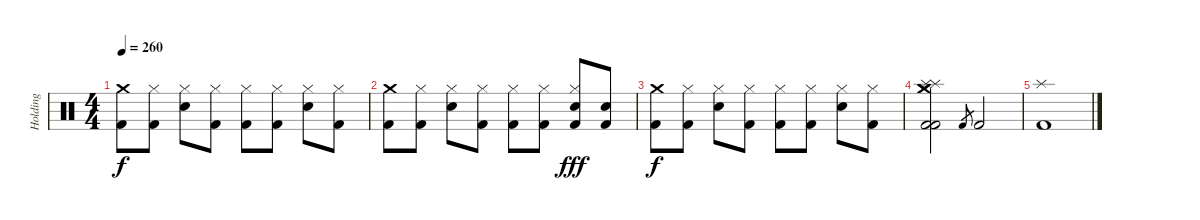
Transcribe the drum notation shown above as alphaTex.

\track ("Holding" "Holding") {instrument percussion}
\staff {score}
\articulation defaults
\ts (4 4)
\tempo 260
\clef neutral
\ks c
("Crash medium (hit)" "Kick (hit) 2").8{dy f} ("Hi-Hat (closed)" "Kick (hit) 2").8 ("Hi-Hat (closed)" "Electric Snare (hit)").8 ("Hi-Hat (closed)" "Kick (hit) 2").8 ("Hi-Hat (closed)" "Kick (hit) 2").8 ("Hi-Hat (closed)" "Kick (hit) 2").8 ("Hi-Hat (closed)" "Electric Snare (hit)").8 ("Hi-Hat (closed)" "Kick (hit) 2").8 |
("Crash medium (hit)" "Kick (hit) 2").8 ("Hi-Hat (closed)" "Kick (hit) 2").8 ("Hi-Hat (closed)" "Electric Snare (hit)").8 ("Hi-Hat (closed)" "Kick (hit) 2").8 ("Hi-Hat (closed)" "Kick (hit) 2").8 ("Hi-Hat (closed)" "Kick (hit) 2").8 ("Hi-Hat (closed)" "Electric Snare (hit)" "Kick (hit) 2").8{dy fff} ("Electric Snare (hit)" "Kick (hit) 2").8 |
("Crash medium (hit)" "Kick (hit) 2").8{dy f} ("Hi-Hat (closed)" "Kick (hit) 2").8 ("Hi-Hat (closed)" "Electric Snare (hit)").8 ("Hi-Hat (closed)" "Kick (hit) 2").8 ("Hi-Hat (closed)" "Kick (hit) 2").8 ("Hi-Hat (closed)" "Kick (hit) 2").8 ("Hi-Hat (closed)" "Electric Snare (hit)").8 ("Hi-Hat (closed)" "Kick (hit) 2").8 |
("Crash medium (hit)" "Splash (hit)" "Crash medium (hit)" "Splash (hit)" "Kick (hit) 2" "Kick (hit) 2").2 "Kick (hit) 2".8{gr} "Kick (hit) 2".2 |
("Splash (hit)" "Kick (hit) 2").1
